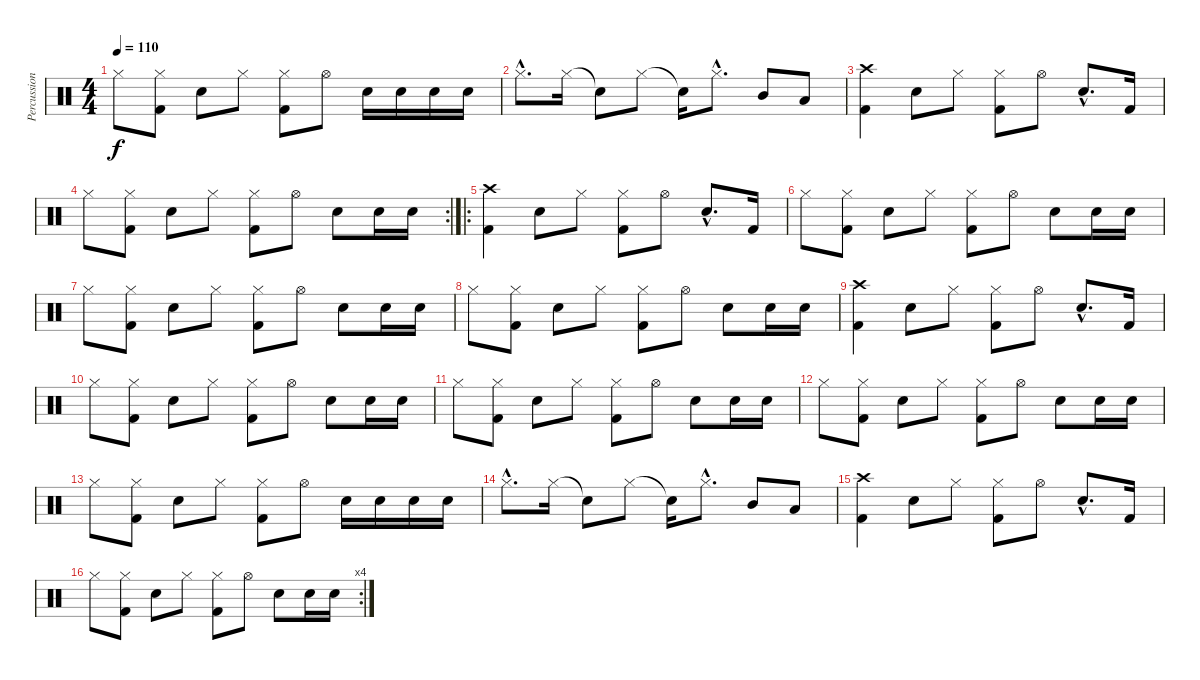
\track ("Percussions" "Percussion") {instrument percussion}
\staff {score}
\articulation defaults
\ts (4 4)
\tempo 110
\clef neutral
\ks c "Hi-Hat (closed)".8{dy f}
("Hi-Hat (closed)" "Kick (hit) 2").8 "Snare (hit) 2".8 "Hi-Hat (closed)".8 ("Kick (hit) 2" "Hi-Hat (closed)").8 "Hi-Hat (open)".8 "Snare (hit) 2".16 "Snare (hit) 2".16 "Snare (hit) 2".16 "Snare (hit) 2".16 |
"Hi-Hat (closed)"{hac}.8{d} "Hi-Hat (closed)".16 "Snare (hit)"{t}.8 "Hi-Hat (closed)".8 "Snare (hit)"{t}.16 "Hi-Hat (closed)"{hac}.8{d} "Mid Tom (hit)".8 "Low Tom (hit)".8 |
("Crash high (hit)" "Kick (hit) 2").4 "Snare (hit) 2".8 "Hi-Hat (closed)".8 ("Kick (hit) 2" "Hi-Hat (closed)").8 "Hi-Hat (open)".8 "Snare (hit) 2"{hac}.8{d} "Kick (hit) 2".16 |
\rc 2 "Hi-Hat (closed)".8
("Hi-Hat (closed)" "Kick (hit) 2").8 "Snare (hit) 2".8 "Hi-Hat (closed)".8 ("Kick (hit) 2" "Hi-Hat (closed)").8 "Hi-Hat (open)".8 "Snare (hit) 2".8 "Snare (hit) 2".16 "Snare (hit) 2".16 |
\ro
("Crash high (hit)" "Kick (hit) 2").4 "Snare (hit) 2".8 "Hi-Hat (closed)".8 ("Kick (hit) 2" "Hi-Hat (closed)").8 "Hi-Hat (open)".8 "Snare (hit) 2"{hac}.8{d} "Kick (hit) 2".16 |
"Hi-Hat (closed)".8 ("Hi-Hat (closed)" "Kick (hit) 2").8 "Snare (hit) 2".8 "Hi-Hat (closed)".8 ("Kick (hit) 2" "Hi-Hat (closed)").8 "Hi-Hat (open)".8 "Snare (hit) 2".8 "Snare (hit) 2".16 "Snare (hit) 2".16 |
"Hi-Hat (closed)".8 ("Hi-Hat (closed)" "Kick (hit) 2").8 "Snare (hit) 2".8 "Hi-Hat (closed)".8 ("Kick (hit) 2" "Hi-Hat (closed)").8 "Hi-Hat (open)".8 "Snare (hit) 2".8 "Snare (hit) 2".16 "Snare (hit) 2".16 |
"Hi-Hat (closed)".8 ("Hi-Hat (closed)" "Kick (hit) 2").8 "Snare (hit) 2".8 "Hi-Hat (closed)".8 ("Kick (hit) 2" "Hi-Hat (closed)").8 "Hi-Hat (open)".8 "Snare (hit) 2".8 "Snare (hit) 2".16 "Snare (hit) 2".16 |
("Crash high (hit)" "Kick (hit) 2").4 "Snare (hit) 2".8 "Hi-Hat (closed)".8 ("Kick (hit) 2" "Hi-Hat (closed)").8 "Hi-Hat (open)".8 "Snare (hit) 2"{hac}.8{d} "Kick (hit) 2".16 |
"Hi-Hat (closed)".8 ("Hi-Hat (closed)" "Kick (hit) 2").8 "Snare (hit) 2".8 "Hi-Hat (closed)".8 ("Kick (hit) 2" "Hi-Hat (closed)").8 "Hi-Hat (open)".8 "Snare (hit) 2".8 "Snare (hit) 2".16 "Snare (hit) 2".16 |
"Hi-Hat (closed)".8 ("Hi-Hat (closed)" "Kick (hit) 2").8 "Snare (hit) 2".8 "Hi-Hat (closed)".8 ("Kick (hit) 2" "Hi-Hat (closed)").8 "Hi-Hat (open)".8 "Snare (hit) 2".8 "Snare (hit) 2".16 "Snare (hit) 2".16 |
"Hi-Hat (closed)".8 ("Hi-Hat (closed)" "Kick (hit) 2").8 "Snare (hit) 2".8 "Hi-Hat (closed)".8 ("Kick (hit) 2" "Hi-Hat (closed)").8 "Hi-Hat (open)".8 "Snare (hit) 2".8 "Snare (hit) 2".16 "Snare (hit) 2".16 |
"Hi-Hat (closed)".8 ("Hi-Hat (closed)" "Kick (hit) 2").8 "Snare (hit) 2".8 "Hi-Hat (closed)".8 ("Kick (hit) 2" "Hi-Hat (closed)").8 "Hi-Hat (open)".8 "Snare (hit) 2".16 "Snare (hit) 2".16 "Snare (hit) 2".16 "Snare (hit) 2".16 |
"Hi-Hat (closed)"{hac}.8{d} "Hi-Hat (closed)".16 "Snare (hit)"{t}.8 "Hi-Hat (closed)".8 "Snare (hit)"{t}.16 "Hi-Hat (closed)"{hac}.8{d} "Mid Tom (hit)".8 "Low Tom (hit)".8 |
("Crash high (hit)" "Kick (hit) 2").4 "Snare (hit) 2".8 "Hi-Hat (closed)".8 ("Kick (hit) 2" "Hi-Hat (closed)").8 "Hi-Hat (open)".8 "Snare (hit) 2"{hac}.8{d} "Kick (hit) 2".16 |
\rc 4 "Hi-Hat (closed)".8
("Hi-Hat (closed)" "Kick (hit) 2").8 "Snare (hit) 2".8 "Hi-Hat (closed)".8 ("Kick (hit) 2" "Hi-Hat (closed)").8 "Hi-Hat (open)".8 "Snare (hit) 2".8 "Snare (hit) 2".16 "Snare (hit) 2".16
